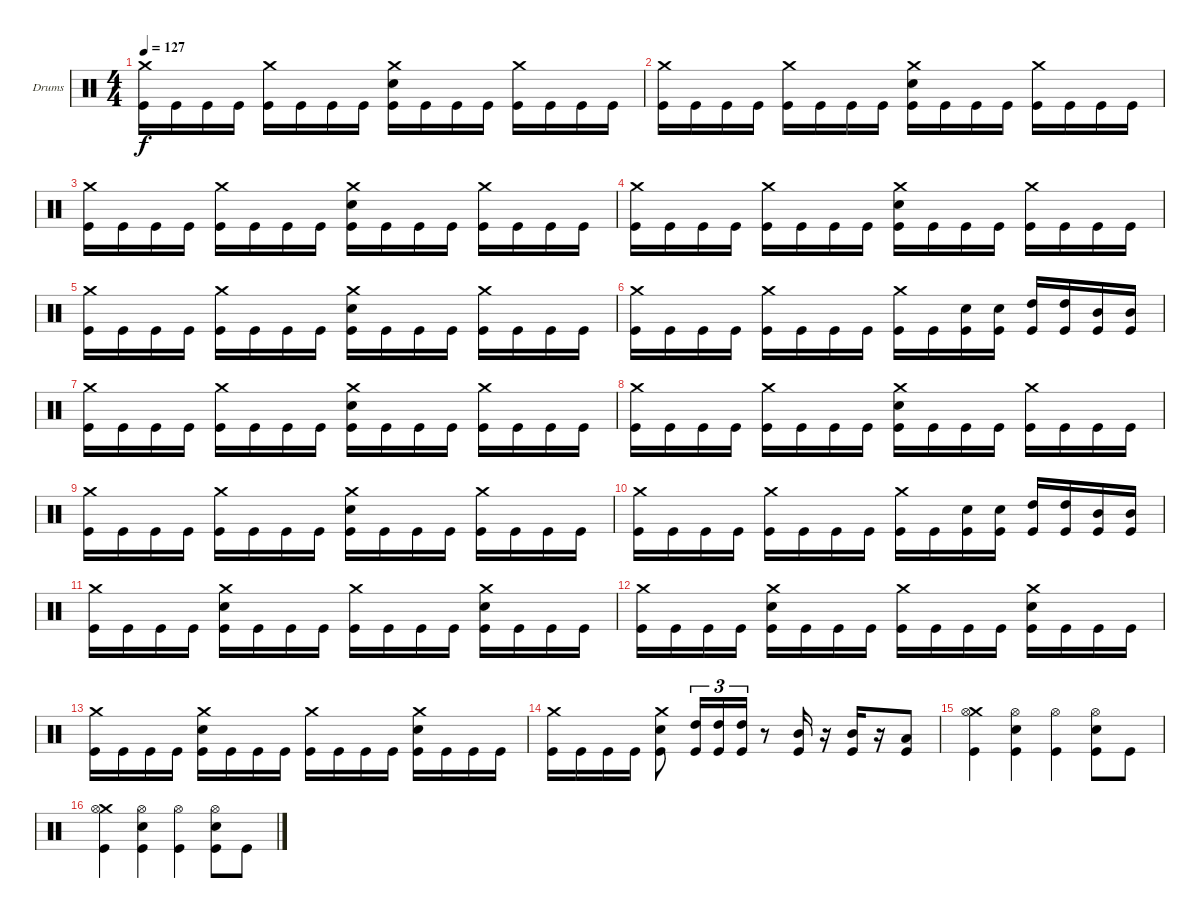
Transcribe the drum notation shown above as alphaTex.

\bracketExtendMode groupsimilarinstruments
\firstSystemTrackNameOrientation horizontal
\otherSystemsTrackNameOrientation horizontal
\track ("Drumkit" "Drums") {instrument percussion}
\staff {score}
\articulation defaults
\ts (4 4)
\tempo 127
\clef neutral
\ks c
("Crash medium (hit)" "Kick (hit)").16{dy f} "Kick (hit)".16 "Kick (hit)".16 "Kick (hit)".16 ("Crash medium (hit)" "Kick (hit)").16 "Kick (hit)".16 "Kick (hit)".16 "Kick (hit)".16 ("Crash medium (hit)" "Snare (hit) 2" "Kick (hit)").16 "Kick (hit)".16 "Kick (hit)".16 "Kick (hit)".16 ("Crash medium (hit)" "Kick (hit)").16 "Kick (hit)".16 "Kick (hit)".16 "Kick (hit)".16 |
("Crash medium (hit)" "Kick (hit)").16 "Kick (hit)".16 "Kick (hit)".16 "Kick (hit)".16 ("Crash medium (hit)" "Kick (hit)").16 "Kick (hit)".16 "Kick (hit)".16 "Kick (hit)".16 ("Crash medium (hit)" "Snare (hit) 2" "Kick (hit)").16 "Kick (hit)".16 "Kick (hit)".16 "Kick (hit)".16 ("Crash medium (hit)" "Kick (hit)").16 "Kick (hit)".16 "Kick (hit)".16 "Kick (hit)".16 |
("Crash medium (hit)" "Kick (hit)").16 "Kick (hit)".16 "Kick (hit)".16 "Kick (hit)".16 ("Crash medium (hit)" "Kick (hit)").16 "Kick (hit)".16 "Kick (hit)".16 "Kick (hit)".16 ("Crash medium (hit)" "Snare (hit) 2" "Kick (hit)").16 "Kick (hit)".16 "Kick (hit)".16 "Kick (hit)".16 ("Crash medium (hit)" "Kick (hit)").16 "Kick (hit)".16 "Kick (hit)".16 "Kick (hit)".16 |
("Crash medium (hit)" "Kick (hit)").16 "Kick (hit)".16 "Kick (hit)".16 "Kick (hit)".16 ("Crash medium (hit)" "Kick (hit)").16 "Kick (hit)".16 "Kick (hit)".16 "Kick (hit)".16 ("Crash medium (hit)" "Snare (hit) 2" "Kick (hit)").16 "Kick (hit)".16 "Kick (hit)".16 "Kick (hit)".16 ("Crash medium (hit)" "Kick (hit)").16 "Kick (hit)".16 "Kick (hit)".16 "Kick (hit)".16 |
("Crash medium (hit)" "Kick (hit)").16 "Kick (hit)".16 "Kick (hit)".16 "Kick (hit)".16 ("Crash medium (hit)" "Kick (hit)").16 "Kick (hit)".16 "Kick (hit)".16 "Kick (hit)".16 ("Crash medium (hit)" "Snare (hit) 2" "Kick (hit)").16 "Kick (hit)".16 "Kick (hit)".16 "Kick (hit)".16 ("Crash medium (hit)" "Kick (hit)").16 "Kick (hit)".16 "Kick (hit)".16 "Kick (hit)".16 |
("Crash medium (hit)" "Kick (hit)").16 "Kick (hit)".16 "Kick (hit)".16 "Kick (hit)".16 ("Crash medium (hit)" "Kick (hit)").16 "Kick (hit)".16 "Kick (hit)".16 "Kick (hit)".16 ("Crash medium (hit)" "Kick (hit)").16 "Kick (hit)".16 ("Snare (hit) 2" "Kick (hit)").16 ("Snare (hit) 2" "Kick (hit)").16 ("High Tom (hit)" "Kick (hit)").16 ("High Tom (hit)" "Kick (hit)").16 ("Mid Tom (hit)" "Kick (hit)").16 ("Mid Tom (hit)" "Kick (hit)").16 |
("Crash medium (hit)" "Kick (hit)").16 "Kick (hit)".16 "Kick (hit)".16 "Kick (hit)".16 ("Crash medium (hit)" "Kick (hit)").16 "Kick (hit)".16 "Kick (hit)".16 "Kick (hit)".16 ("Crash medium (hit)" "Snare (hit) 2" "Kick (hit)").16 "Kick (hit)".16 "Kick (hit)".16 "Kick (hit)".16 ("Crash medium (hit)" "Kick (hit)").16 "Kick (hit)".16 "Kick (hit)".16 "Kick (hit)".16 |
("Crash medium (hit)" "Kick (hit)").16 "Kick (hit)".16 "Kick (hit)".16 "Kick (hit)".16 ("Crash medium (hit)" "Kick (hit)").16 "Kick (hit)".16 "Kick (hit)".16 "Kick (hit)".16 ("Crash medium (hit)" "Snare (hit) 2" "Kick (hit)").16 "Kick (hit)".16 "Kick (hit)".16 "Kick (hit)".16 ("Crash medium (hit)" "Kick (hit)").16 "Kick (hit)".16 "Kick (hit)".16 "Kick (hit)".16 |
("Crash medium (hit)" "Kick (hit)").16 "Kick (hit)".16 "Kick (hit)".16 "Kick (hit)".16 ("Crash medium (hit)" "Kick (hit)").16 "Kick (hit)".16 "Kick (hit)".16 "Kick (hit)".16 ("Crash medium (hit)" "Snare (hit) 2" "Kick (hit)").16 "Kick (hit)".16 "Kick (hit)".16 "Kick (hit)".16 ("Crash medium (hit)" "Kick (hit)").16 "Kick (hit)".16 "Kick (hit)".16 "Kick (hit)".16 |
("Crash medium (hit)" "Kick (hit)").16 "Kick (hit)".16 "Kick (hit)".16 "Kick (hit)".16 ("Crash medium (hit)" "Kick (hit)").16 "Kick (hit)".16 "Kick (hit)".16 "Kick (hit)".16 ("Crash medium (hit)" "Kick (hit)").16 "Kick (hit)".16 ("Snare (hit) 2" "Kick (hit)").16 ("Snare (hit) 2" "Kick (hit)").16 ("High Tom (hit)" "Kick (hit)").16 ("High Tom (hit)" "Kick (hit)").16 ("Mid Tom (hit)" "Kick (hit)").16 ("Mid Tom (hit)" "Kick (hit)").16 |
("Crash medium (hit)" "Kick (hit)").16 "Kick (hit)".16 "Kick (hit)".16 "Kick (hit)".16 ("Crash medium (hit)" "Snare (hit) 2" "Kick (hit)").16 "Kick (hit)".16 "Kick (hit)".16 "Kick (hit)".16 ("Crash medium (hit)" "Kick (hit)").16 "Kick (hit)".16 "Kick (hit)".16 "Kick (hit)".16 ("Crash medium (hit)" "Snare (hit) 2" "Kick (hit)").16 "Kick (hit)".16 "Kick (hit)".16 "Kick (hit)".16 |
("Crash medium (hit)" "Kick (hit)").16 "Kick (hit)".16 "Kick (hit)".16 "Kick (hit)".16 ("Crash medium (hit)" "Snare (hit) 2" "Kick (hit)").16 "Kick (hit)".16 "Kick (hit)".16 "Kick (hit)".16 ("Crash medium (hit)" "Kick (hit)").16 "Kick (hit)".16 "Kick (hit)".16 "Kick (hit)".16 ("Crash medium (hit)" "Snare (hit) 2" "Kick (hit)").16 "Kick (hit)".16 "Kick (hit)".16 "Kick (hit)".16 |
("Crash medium (hit)" "Kick (hit)").16 "Kick (hit)".16 "Kick (hit)".16 "Kick (hit)".16 ("Crash medium (hit)" "Snare (hit) 2" "Kick (hit)").16 "Kick (hit)".16 "Kick (hit)".16 "Kick (hit)".16 ("Crash medium (hit)" "Kick (hit)").16 "Kick (hit)".16 "Kick (hit)".16 "Kick (hit)".16 ("Crash medium (hit)" "Snare (hit) 2" "Kick (hit)").16 "Kick (hit)".16 "Kick (hit)".16 "Kick (hit)".16 |
("Crash medium (hit)" "Kick (hit)").16 "Kick (hit)".16 "Kick (hit)".16 "Kick (hit)".16 ("Crash medium (hit)" "Snare (hit) 2" "Kick (hit)").8 ("High Tom (hit)" "Kick (hit)").16{tu (3 2)} ("High Tom (hit)" "Kick (hit)").16{tu (3 2)} ("High Tom (hit)" "Kick (hit)").16{tu (3 2)} r.8 ("Mid Tom (hit)" "Kick (hit)").16 r.16 ("Mid Tom (hit)" "Kick (hit)").16 r.16 ("Low Tom (hit)" "Kick (hit)").8 |
("Crash medium (hit)" "Hi-Hat (open)" "Kick (hit)").4 ("Hi-Hat (open)" "Snare (hit) 2" "Kick (hit)").4 ("Hi-Hat (open)" "Kick (hit)").4 ("Hi-Hat (open)" "Snare (hit) 2" "Kick (hit)").8 "Kick (hit)".8 |
("Crash medium (hit)" "Hi-Hat (open)" "Kick (hit)").4 ("Hi-Hat (open)" "Snare (hit) 2" "Kick (hit)").4 ("Hi-Hat (open)" "Kick (hit)").4 ("Hi-Hat (open)" "Snare (hit) 2" "Kick (hit)").8 "Kick (hit)".8
